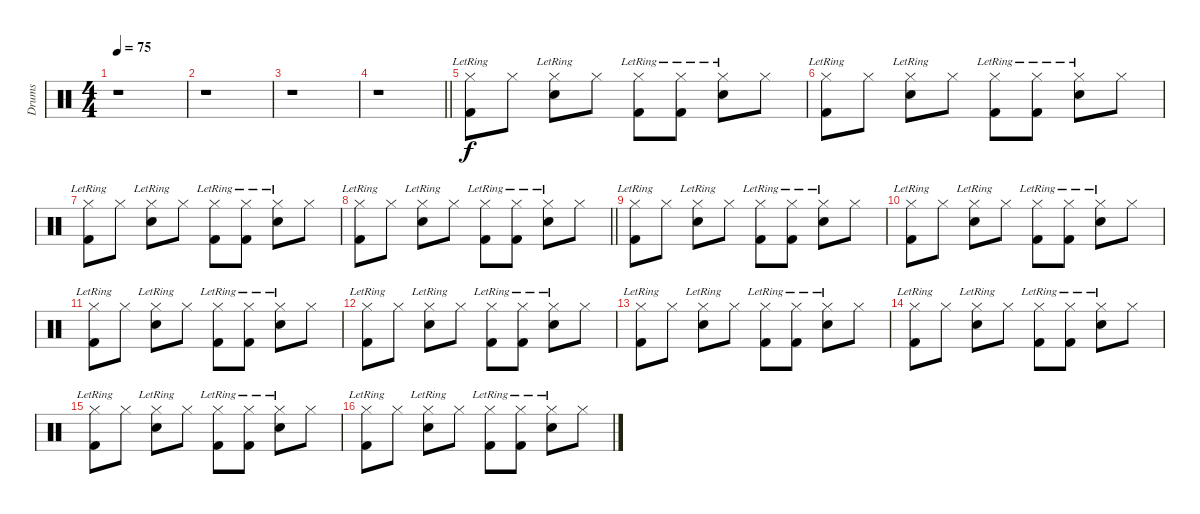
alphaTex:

\track ("Drums" "Drums") {instrument percussion}
\staff {score}
\articulation defaults
\ts (4 4)
\tempo 75
\clef neutral
\ks c
r.1{dy f} |
r.1 |
r.1 |
\barLineRight lightlight
r.1 |
("Hi-Hat (closed)" "Kick (hit) 2"{lr}).8 "Hi-Hat (closed)".8 ("Hi-Hat (closed)" "Electric Snare (hit)"{lr}).8 "Hi-Hat (closed)".8 ("Hi-Hat (closed)" "Kick (hit) 2"{lr}).8 ("Hi-Hat (closed)" "Kick (hit) 2"{lr}).8 ("Hi-Hat (closed)" "Electric Snare (hit)"{lr}).8 "Hi-Hat (closed)".8 |
("Hi-Hat (closed)" "Kick (hit) 2"{lr}).8 "Hi-Hat (closed)".8 ("Hi-Hat (closed)" "Electric Snare (hit)"{lr}).8 "Hi-Hat (closed)".8 ("Hi-Hat (closed)" "Kick (hit) 2"{lr}).8 ("Hi-Hat (closed)" "Kick (hit) 2"{lr}).8 ("Hi-Hat (closed)" "Electric Snare (hit)"{lr}).8 "Hi-Hat (closed)".8 |
("Hi-Hat (closed)" "Kick (hit) 2"{lr}).8 "Hi-Hat (closed)".8 ("Hi-Hat (closed)" "Electric Snare (hit)"{lr}).8 "Hi-Hat (closed)".8 ("Hi-Hat (closed)" "Kick (hit) 2"{lr}).8 ("Hi-Hat (closed)" "Kick (hit) 2"{lr}).8 ("Hi-Hat (closed)" "Electric Snare (hit)"{lr}).8 "Hi-Hat (closed)".8 |
\barLineRight lightlight
("Hi-Hat (closed)" "Kick (hit) 2"{lr}).8 "Hi-Hat (closed)".8 ("Hi-Hat (closed)" "Electric Snare (hit)"{lr}).8 "Hi-Hat (closed)".8 ("Hi-Hat (closed)" "Kick (hit) 2"{lr}).8 ("Hi-Hat (closed)" "Kick (hit) 2"{lr}).8 ("Hi-Hat (closed)" "Electric Snare (hit)"{lr}).8 "Hi-Hat (closed)".8 |
("Hi-Hat (closed)" "Kick (hit) 2"{lr}).8 "Hi-Hat (closed)".8 ("Hi-Hat (closed)" "Electric Snare (hit)"{lr}).8 "Hi-Hat (closed)".8 ("Hi-Hat (closed)" "Kick (hit) 2"{lr}).8 ("Hi-Hat (closed)" "Kick (hit) 2"{lr}).8 ("Hi-Hat (closed)" "Electric Snare (hit)"{lr}).8 "Hi-Hat (closed)".8 |
("Hi-Hat (closed)" "Kick (hit) 2"{lr}).8 "Hi-Hat (closed)".8 ("Hi-Hat (closed)" "Electric Snare (hit)"{lr}).8 "Hi-Hat (closed)".8 ("Hi-Hat (closed)" "Kick (hit) 2"{lr}).8 ("Hi-Hat (closed)" "Kick (hit) 2"{lr}).8 ("Hi-Hat (closed)" "Electric Snare (hit)"{lr}).8 "Hi-Hat (closed)".8 |
("Hi-Hat (closed)" "Kick (hit) 2"{lr}).8 "Hi-Hat (closed)".8 ("Hi-Hat (closed)" "Electric Snare (hit)"{lr}).8 "Hi-Hat (closed)".8 ("Hi-Hat (closed)" "Kick (hit) 2"{lr}).8 ("Hi-Hat (closed)" "Kick (hit) 2"{lr}).8 ("Hi-Hat (closed)" "Electric Snare (hit)"{lr}).8 "Hi-Hat (closed)".8 |
("Hi-Hat (closed)" "Kick (hit) 2"{lr}).8 "Hi-Hat (closed)".8 ("Hi-Hat (closed)" "Electric Snare (hit)"{lr}).8 "Hi-Hat (closed)".8 ("Hi-Hat (closed)" "Kick (hit) 2"{lr}).8 ("Hi-Hat (closed)" "Kick (hit) 2"{lr}).8 ("Hi-Hat (closed)" "Electric Snare (hit)"{lr}).8 "Hi-Hat (closed)".8 |
("Hi-Hat (closed)" "Kick (hit) 2"{lr}).8 "Hi-Hat (closed)".8 ("Hi-Hat (closed)" "Electric Snare (hit)"{lr}).8 "Hi-Hat (closed)".8 ("Hi-Hat (closed)" "Kick (hit) 2"{lr}).8 ("Hi-Hat (closed)" "Kick (hit) 2"{lr}).8 ("Hi-Hat (closed)" "Electric Snare (hit)"{lr}).8 "Hi-Hat (closed)".8 |
("Hi-Hat (closed)" "Kick (hit) 2"{lr}).8 "Hi-Hat (closed)".8 ("Hi-Hat (closed)" "Electric Snare (hit)"{lr}).8 "Hi-Hat (closed)".8 ("Hi-Hat (closed)" "Kick (hit) 2"{lr}).8 ("Hi-Hat (closed)" "Kick (hit) 2"{lr}).8 ("Hi-Hat (closed)" "Electric Snare (hit)"{lr}).8 "Hi-Hat (closed)".8 |
("Hi-Hat (closed)" "Kick (hit) 2"{lr}).8 "Hi-Hat (closed)".8 ("Hi-Hat (closed)" "Electric Snare (hit)"{lr}).8 "Hi-Hat (closed)".8 ("Hi-Hat (closed)" "Kick (hit) 2"{lr}).8 ("Hi-Hat (closed)" "Kick (hit) 2"{lr}).8 ("Hi-Hat (closed)" "Electric Snare (hit)"{lr}).8 "Hi-Hat (closed)".8 |
("Hi-Hat (closed)" "Kick (hit) 2"{lr}).8 "Hi-Hat (closed)".8 ("Hi-Hat (closed)" "Electric Snare (hit)"{lr}).8 "Hi-Hat (closed)".8 ("Hi-Hat (closed)" "Kick (hit) 2"{lr}).8 ("Hi-Hat (closed)" "Kick (hit) 2"{lr}).8 ("Hi-Hat (closed)" "Electric Snare (hit)"{lr}).8 "Hi-Hat (closed)".8
